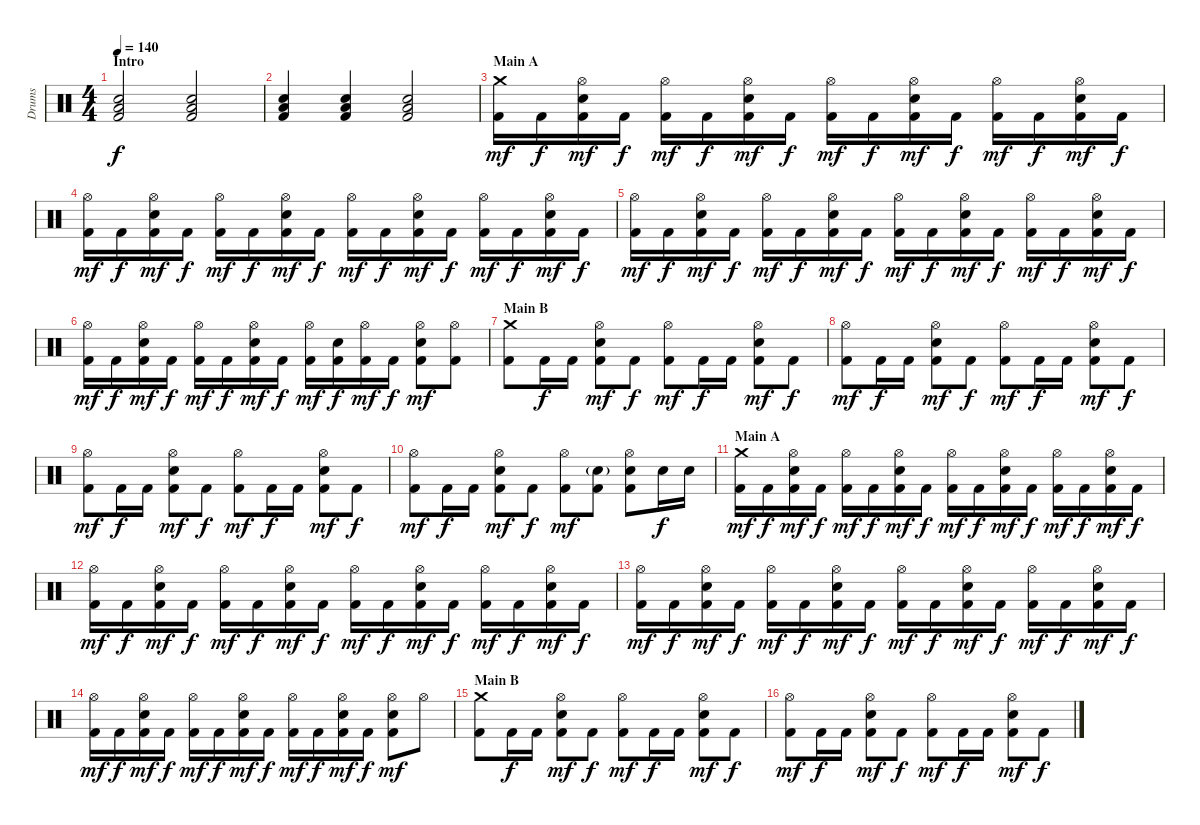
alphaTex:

\track ("Drums" "Drums") {instrument percussion}
\staff {score}
\articulation defaults
\ts (4 4)
\section ("" "Intro")
\tempo 140
\clef neutral
\ks c
("Low Floor Tom (hit)" "Snare (hit) 2" "Kick (hit) 2").2{dy f} ("Low Floor Tom (hit)" "Snare (hit) 2" "Kick (hit) 2").2 |
("Low Floor Tom (hit)" "Snare (hit) 2" "Kick (hit) 2").4 ("Low Floor Tom (hit)" "Snare (hit) 2" "Kick (hit) 2").4 ("Low Floor Tom (hit)" "Snare (hit) 2" "Kick (hit) 2").2 |
\section ("" "Main A")
("Crash medium (hit)" "Kick (hit) 2").16{dy mf} "Kick (hit) 2".16{dy f} ("Hi-Hat (open)" "Snare (hit) 2" "Kick (hit) 2").16{dy mf} "Kick (hit) 2".16{dy f} ("Hi-Hat (open)" "Kick (hit) 2").16{dy mf} "Kick (hit) 2".16{dy f} ("Hi-Hat (open)" "Snare (hit) 2" "Kick (hit) 2").16{dy mf} "Kick (hit) 2".16{dy f} ("Hi-Hat (open)" "Kick (hit) 2").16{dy mf} "Kick (hit) 2".16{dy f} ("Hi-Hat (open)" "Snare (hit) 2" "Kick (hit) 2").16{dy mf} "Kick (hit) 2".16{dy f} ("Hi-Hat (open)" "Kick (hit) 2").16{dy mf} "Kick (hit) 2".16{dy f} ("Hi-Hat (open)" "Snare (hit) 2" "Kick (hit) 2").16{dy mf} "Kick (hit) 2".16{dy f} |
("Hi-Hat (open)" "Kick (hit) 2").16{dy mf} "Kick (hit) 2".16{dy f} ("Hi-Hat (open)" "Snare (hit) 2" "Kick (hit) 2").16{dy mf} "Kick (hit) 2".16{dy f} ("Hi-Hat (open)" "Kick (hit) 2").16{dy mf} "Kick (hit) 2".16{dy f} ("Hi-Hat (open)" "Snare (hit) 2" "Kick (hit) 2").16{dy mf} "Kick (hit) 2".16{dy f} ("Hi-Hat (open)" "Kick (hit) 2").16{dy mf} "Kick (hit) 2".16{dy f} ("Hi-Hat (open)" "Snare (hit) 2" "Kick (hit) 2").16{dy mf} "Kick (hit) 2".16{dy f} ("Hi-Hat (open)" "Kick (hit) 2").16{dy mf} "Kick (hit) 2".16{dy f} ("Hi-Hat (open)" "Snare (hit) 2" "Kick (hit) 2").16{dy mf} "Kick (hit) 2".16{dy f} |
("Hi-Hat (open)" "Kick (hit) 2").16{dy mf} "Kick (hit) 2".16{dy f} ("Hi-Hat (open)" "Snare (hit) 2" "Kick (hit) 2").16{dy mf} "Kick (hit) 2".16{dy f} ("Hi-Hat (open)" "Kick (hit) 2").16{dy mf} "Kick (hit) 2".16{dy f} ("Hi-Hat (open)" "Snare (hit) 2" "Kick (hit) 2").16{dy mf} "Kick (hit) 2".16{dy f} ("Hi-Hat (open)" "Kick (hit) 2").16{dy mf} "Kick (hit) 2".16{dy f} ("Hi-Hat (open)" "Snare (hit) 2" "Kick (hit) 2").16{dy mf} "Kick (hit) 2".16{dy f} ("Hi-Hat (open)" "Kick (hit) 2").16{dy mf} "Kick (hit) 2".16{dy f} ("Hi-Hat (open)" "Snare (hit) 2" "Kick (hit) 2").16{dy mf} "Kick (hit) 2".16{dy f} |
("Hi-Hat (open)" "Kick (hit) 2").16{dy mf} "Kick (hit) 2".16{dy f} ("Hi-Hat (open)" "Snare (hit) 2" "Kick (hit) 2").16{dy mf} "Kick (hit) 2".16{dy f} ("Hi-Hat (open)" "Kick (hit) 2").16{dy mf} "Kick (hit) 2".16{dy f} ("Hi-Hat (open)" "Snare (hit) 2" "Kick (hit) 2").16{dy mf} "Kick (hit) 2".16{dy f} ("Hi-Hat (open)" "Kick (hit) 2").16{dy mf} ("Snare (hit) 2" "Kick (hit) 2").16{dy f} ("Hi-Hat (open)" "Kick (hit) 2").16{dy mf} "Kick (hit) 2".16{dy f} ("Hi-Hat (open)" "Snare (hit) 2" "Kick (hit) 2").8{dy mf} ("Hi-Hat (open)" "Kick (hit) 2").8 |
\section ("" "Main B")
("Crash medium (hit)" "Kick (hit) 2").8 "Kick (hit) 2".16{dy f} "Kick (hit) 2".16 ("Hi-Hat (open)" "Snare (hit) 2" "Kick (hit) 2").8{dy mf} "Kick (hit) 2".8{dy f} ("Hi-Hat (open)" "Kick (hit) 2").8{dy mf} "Kick (hit) 2".16{dy f} "Kick (hit) 2".16 ("Hi-Hat (open)" "Snare (hit) 2" "Kick (hit) 2").8{dy mf} "Kick (hit) 2".8{dy f} |
("Hi-Hat (open)" "Kick (hit) 2").8{dy mf} "Kick (hit) 2".16{dy f} "Kick (hit) 2".16 ("Hi-Hat (open)" "Snare (hit) 2" "Kick (hit) 2").8{dy mf} "Kick (hit) 2".8{dy f} ("Hi-Hat (open)" "Kick (hit) 2").8{dy mf} "Kick (hit) 2".16{dy f} "Kick (hit) 2".16 ("Hi-Hat (open)" "Snare (hit) 2" "Kick (hit) 2").8{dy mf} "Kick (hit) 2".8{dy f} |
("Hi-Hat (open)" "Kick (hit) 2").8{dy mf} "Kick (hit) 2".16{dy f} "Kick (hit) 2".16 ("Hi-Hat (open)" "Snare (hit) 2" "Kick (hit) 2").8{dy mf} "Kick (hit) 2".8{dy f} ("Hi-Hat (open)" "Kick (hit) 2").8{dy mf} "Kick (hit) 2".16{dy f} "Kick (hit) 2".16 ("Hi-Hat (open)" "Snare (hit) 2" "Kick (hit) 2").8{dy mf} "Kick (hit) 2".8{dy f} |
("Hi-Hat (open)" "Kick (hit) 2").8{dy mf} "Kick (hit) 2".16{dy f} "Kick (hit) 2".16 ("Hi-Hat (open)" "Snare (hit) 2" "Kick (hit) 2").8{dy mf} "Kick (hit) 2".8{dy f} ("Hi-Hat (open)" "Kick (hit) 2").8{dy mf} ("Snare (hit) 2"{g} "Kick (hit) 2").8 ("Hi-Hat (open)" "Snare (hit) 2" "Kick (hit) 2").8 "Snare (hit) 2".16{dy f} "Snare (hit) 2".16 |
\section ("" "Main A")
("Crash medium (hit)" "Kick (hit) 2").16{dy mf} "Kick (hit) 2".16{dy f} ("Hi-Hat (open)" "Snare (hit) 2" "Kick (hit) 2").16{dy mf} "Kick (hit) 2".16{dy f} ("Hi-Hat (open)" "Kick (hit) 2").16{dy mf} "Kick (hit) 2".16{dy f} ("Hi-Hat (open)" "Snare (hit) 2" "Kick (hit) 2").16{dy mf} "Kick (hit) 2".16{dy f} ("Hi-Hat (open)" "Kick (hit) 2").16{dy mf} "Kick (hit) 2".16{dy f} ("Hi-Hat (open)" "Snare (hit) 2" "Kick (hit) 2").16{dy mf} "Kick (hit) 2".16{dy f} ("Hi-Hat (open)" "Kick (hit) 2").16{dy mf} "Kick (hit) 2".16{dy f} ("Hi-Hat (open)" "Snare (hit) 2" "Kick (hit) 2").16{dy mf} "Kick (hit) 2".16{dy f} |
("Hi-Hat (open)" "Kick (hit) 2").16{dy mf} "Kick (hit) 2".16{dy f} ("Hi-Hat (open)" "Snare (hit) 2" "Kick (hit) 2").16{dy mf} "Kick (hit) 2".16{dy f} ("Hi-Hat (open)" "Kick (hit) 2").16{dy mf} "Kick (hit) 2".16{dy f} ("Hi-Hat (open)" "Snare (hit) 2" "Kick (hit) 2").16{dy mf} "Kick (hit) 2".16{dy f} ("Hi-Hat (open)" "Kick (hit) 2").16{dy mf} "Kick (hit) 2".16{dy f} ("Hi-Hat (open)" "Snare (hit) 2" "Kick (hit) 2").16{dy mf} "Kick (hit) 2".16{dy f} ("Hi-Hat (open)" "Kick (hit) 2").16{dy mf} "Kick (hit) 2".16{dy f} ("Hi-Hat (open)" "Snare (hit) 2" "Kick (hit) 2").16{dy mf} "Kick (hit) 2".16{dy f} |
("Hi-Hat (open)" "Kick (hit) 2").16{dy mf} "Kick (hit) 2".16{dy f} ("Hi-Hat (open)" "Snare (hit) 2" "Kick (hit) 2").16{dy mf} "Kick (hit) 2".16{dy f} ("Hi-Hat (open)" "Kick (hit) 2").16{dy mf} "Kick (hit) 2".16{dy f} ("Hi-Hat (open)" "Snare (hit) 2" "Kick (hit) 2").16{dy mf} "Kick (hit) 2".16{dy f} ("Hi-Hat (open)" "Kick (hit) 2").16{dy mf} "Kick (hit) 2".16{dy f} ("Hi-Hat (open)" "Snare (hit) 2" "Kick (hit) 2").16{dy mf} "Kick (hit) 2".16{dy f} ("Hi-Hat (open)" "Kick (hit) 2").16{dy mf} "Kick (hit) 2".16{dy f} ("Hi-Hat (open)" "Snare (hit) 2" "Kick (hit) 2").16{dy mf} "Kick (hit) 2".16{dy f} |
("Hi-Hat (open)" "Kick (hit) 2").16{dy mf} "Kick (hit) 2".16{dy f} ("Hi-Hat (open)" "Snare (hit) 2" "Kick (hit) 2").16{dy mf} "Kick (hit) 2".16{dy f} ("Hi-Hat (open)" "Kick (hit) 2").16{dy mf} "Kick (hit) 2".16{dy f} ("Hi-Hat (open)" "Snare (hit) 2" "Kick (hit) 2").16{dy mf} "Kick (hit) 2".16{dy f} ("Hi-Hat (open)" "Kick (hit) 2").16{dy mf} "Kick (hit) 2".16{dy f} ("Hi-Hat (open)" "Snare (hit) 2" "Kick (hit) 2").16{dy mf} "Kick (hit) 2".16{dy f} ("Hi-Hat (open)" "Snare (hit) 2" "Kick (hit) 2").8{dy mf} "Hi-Hat (open)".8 |
\section ("" "Main B")
("Crash medium (hit)" "Kick (hit) 2").8 "Kick (hit) 2".16{dy f} "Kick (hit) 2".16 ("Hi-Hat (open)" "Snare (hit) 2" "Kick (hit) 2").8{dy mf} "Kick (hit) 2".8{dy f} ("Hi-Hat (open)" "Kick (hit) 2").8{dy mf} "Kick (hit) 2".16{dy f} "Kick (hit) 2".16 ("Hi-Hat (open)" "Snare (hit) 2" "Kick (hit) 2").8{dy mf} "Kick (hit) 2".8{dy f} |
("Hi-Hat (open)" "Kick (hit) 2").8{dy mf} "Kick (hit) 2".16{dy f} "Kick (hit) 2".16 ("Hi-Hat (open)" "Snare (hit) 2" "Kick (hit) 2").8{dy mf} "Kick (hit) 2".8{dy f} ("Hi-Hat (open)" "Kick (hit) 2").8{dy mf} "Kick (hit) 2".16{dy f} "Kick (hit) 2".16 ("Hi-Hat (open)" "Snare (hit) 2" "Kick (hit) 2").8{dy mf} "Kick (hit) 2".8{dy f}
